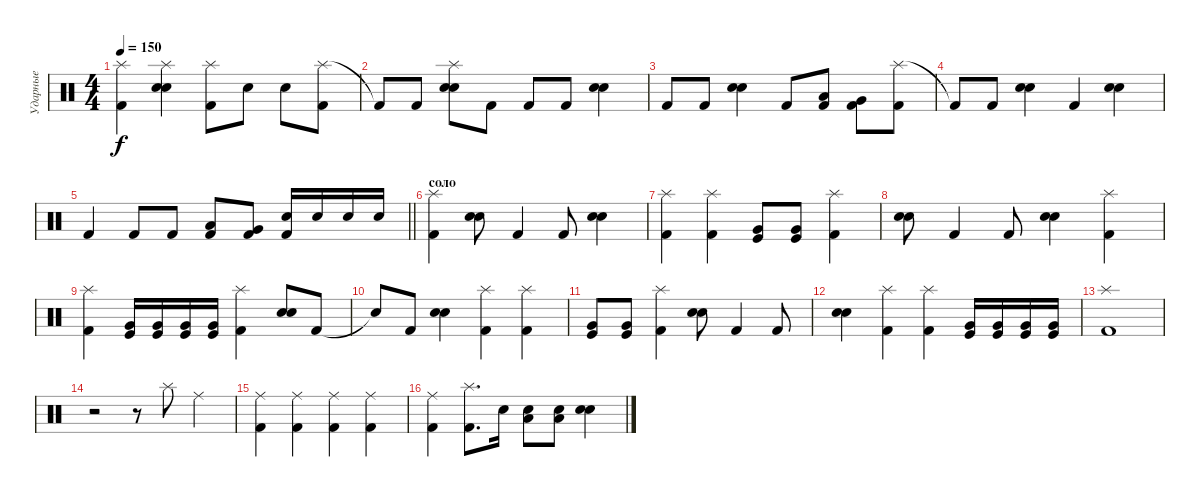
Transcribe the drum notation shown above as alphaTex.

\track ("Ударные" "Ударные") {instrument percussion}
\staff {score}
\articulation defaults
\ts (4 4)
\tempo 150
\clef neutral
\ks c
("Splash (hit)" "Kick (hit) 2").4{dy f} ("Splash (hit)" "Electric Snare (hit)" "Snare (hit) 2").4 ("Splash (hit)" "Kick (hit) 2").8 "Electric Snare (hit)".8 "Electric Snare (hit)".8 ("Splash (hit)" "Kick (hit) 2").8 |
"Kick (hit) 2"{t}.8 "Kick (hit) 2".8 ("Splash (hit)" "Electric Snare (hit)" "Snare (hit) 2").8 "Kick (hit) 2".8 "Kick (hit) 2".8 "Kick (hit) 2".8 ("Electric Snare (hit)" "Snare (hit) 2").4 |
"Kick (hit) 2".8 "Kick (hit) 2".8 ("Electric Snare (hit)" "Snare (hit) 2").4 "Kick (hit) 2".8 ("Low Tom (hit)" "Kick (hit) 2").8 ("Very Low Tom (hit)" "Kick (hit) 2").8 ("Splash (hit)" "Kick (hit) 2").8 |
"Kick (hit) 2"{t}.8 "Kick (hit) 2".8 ("Electric Snare (hit)" "Snare (hit) 2").4 "Kick (hit) 2".4 ("Electric Snare (hit)" "Snare (hit) 2").4 |
\barLineRight lightlight "Kick (hit) 2".4 "Kick (hit) 2".8 "Kick (hit) 2".8
("Low Tom (hit)" "Kick (hit) 2").8 ("Very Low Tom (hit)" "Kick (hit) 2").8 ("Electric Snare (hit)" "Kick (hit) 2").16 "Electric Snare (hit)".16 "Electric Snare (hit)".16 "Electric Snare (hit)".16 |
\section ("" "соло")
("Splash (hit)" "Kick (hit) 2").4 ("Electric Snare (hit)" "Snare (hit) 2").8 "Kick (hit) 2".4 "Kick (hit) 2".8 ("Electric Snare (hit)" "Snare (hit) 2").4 |
("Splash (hit)" "Kick (hit) 2").4 ("Splash (hit)" "Kick (hit) 2").4 ("Very Low Tom (hit)" "Kick (hit)").8 ("Very Low Tom (hit)" "Kick (hit)").8 ("Splash (hit)" "Kick (hit) 2").4 |
("Electric Snare (hit)" "Snare (hit) 2").8 "Kick (hit) 2".4 "Kick (hit) 2".8 ("Electric Snare (hit)" "Snare (hit) 2").4 ("Splash (hit)" "Kick (hit) 2").4 |
("Splash (hit)" "Kick (hit) 2").4 ("Very Low Tom (hit)" "Kick (hit)").16 ("Very Low Tom (hit)" "Kick (hit)").16 ("Very Low Tom (hit)" "Kick (hit)").16 ("Very Low Tom (hit)" "Kick (hit)").16 ("Splash (hit)" "Kick (hit) 2").4 ("Electric Snare (hit)" "Snare (hit) 2").8 "Kick (hit) 2".8 |
"Snare (hit)"{t}.8 "Kick (hit) 2".8 ("Electric Snare (hit)" "Snare (hit) 2").4 ("Splash (hit)" "Kick (hit) 2").4 ("Splash (hit)" "Kick (hit) 2").4 |
("Very Low Tom (hit)" "Kick (hit)").8 ("Very Low Tom (hit)" "Kick (hit)").8 ("Splash (hit)" "Kick (hit) 2").4 ("Electric Snare (hit)" "Snare (hit) 2").8 "Kick (hit) 2".4 "Kick (hit) 2".8 |
("Electric Snare (hit)" "Snare (hit) 2").4 ("Splash (hit)" "Kick (hit) 2").4 ("Splash (hit)" "Kick (hit) 2").4 ("Very Low Tom (hit)" "Kick (hit)").16 ("Very Low Tom (hit)" "Kick (hit)").16 ("Very Low Tom (hit)" "Kick (hit)").16 ("Very Low Tom (hit)" "Kick (hit)").16 |
("Splash (hit)" "Kick (hit) 2").1 |
r.2 r.8 "Splash (hit)".8 "Ride (middle)".4 |
("Ride (middle)" "Kick (hit) 2").4 ("Ride (middle)" "Kick (hit) 2").4 ("Ride (middle)" "Kick (hit) 2").4 ("Ride (middle)" "Kick (hit) 2").4 |
("Ride (middle)" "Kick (hit) 2").4 ("Splash (hit)" "Kick (hit) 2").8{d} "Electric Snare (hit)".16 ("Electric Snare (hit)" "Low Tom (hit)").8 ("Electric Snare (hit)" "Low Tom (hit)").8 ("Electric Snare (hit)" "Snare (hit) 2").4
